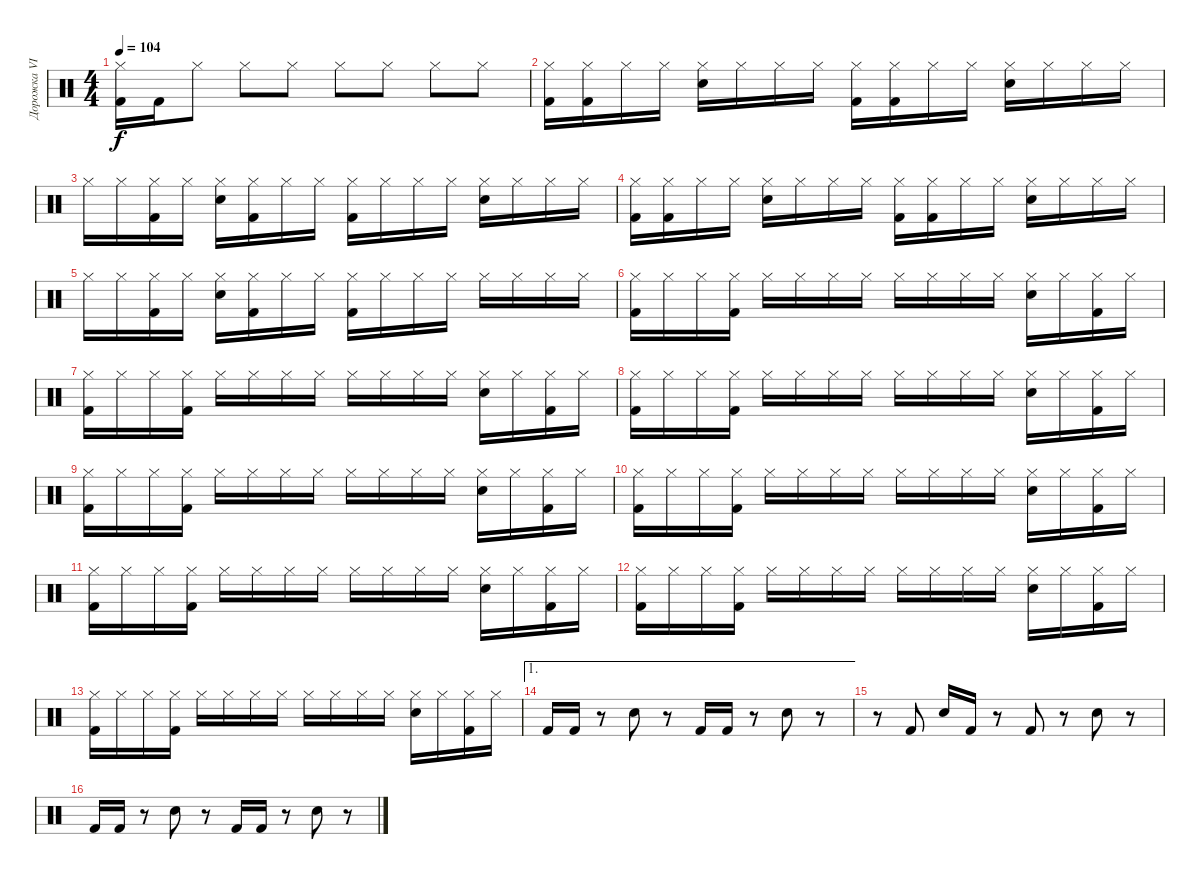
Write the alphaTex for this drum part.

\track ("Дорожка VII" "Дорожка VI") {instrument percussion}
\staff {score}
\articulation defaults
\ts (4 4)
\tempo 104
\clef neutral
\ks c
("Kick (hit) 2" "Hi-Hat (closed)").16{dy f} "Kick (hit) 2".16 "Hi-Hat (closed)".8 "Hi-Hat (closed)".8 "Hi-Hat (closed)".8 "Hi-Hat (closed)".8 "Hi-Hat (closed)".8 "Hi-Hat (closed)".8 "Hi-Hat (closed)".8 |
("Kick (hit) 2" "Hi-Hat (closed)").16 ("Kick (hit) 2" "Hi-Hat (closed)").16 "Hi-Hat (closed)".16 "Hi-Hat (closed)".16 ("Electric Snare (hit)" "Hi-Hat (closed)").16 "Hi-Hat (closed)".16 "Hi-Hat (closed)".16 "Hi-Hat (closed)".16 ("Kick (hit) 2" "Hi-Hat (closed)").16 ("Kick (hit) 2" "Hi-Hat (closed)").16 "Hi-Hat (closed)".16 "Hi-Hat (closed)".16 ("Electric Snare (hit)" "Hi-Hat (closed)").16 "Hi-Hat (closed)".16 "Hi-Hat (closed)".16 "Hi-Hat (closed)".16 |
"Hi-Hat (closed)".16 "Hi-Hat (closed)".16 ("Kick (hit) 2" "Hi-Hat (closed)").16 "Hi-Hat (closed)".16 ("Electric Snare (hit)" "Hi-Hat (closed)").16 ("Kick (hit) 2" "Hi-Hat (closed)").16 "Hi-Hat (closed)".16 "Hi-Hat (closed)".16 ("Kick (hit) 2" "Hi-Hat (closed)").16 "Hi-Hat (closed)".16 "Hi-Hat (closed)".16 "Hi-Hat (closed)".16 ("Electric Snare (hit)" "Hi-Hat (closed)").16 "Hi-Hat (closed)".16 "Hi-Hat (closed)".16 "Hi-Hat (closed)".16 |
("Kick (hit) 2" "Hi-Hat (closed)").16 ("Kick (hit) 2" "Hi-Hat (closed)").16 "Hi-Hat (closed)".16 "Hi-Hat (closed)".16 ("Electric Snare (hit)" "Hi-Hat (closed)").16 "Hi-Hat (closed)".16 "Hi-Hat (closed)".16 "Hi-Hat (closed)".16 ("Kick (hit) 2" "Hi-Hat (closed)").16 ("Kick (hit) 2" "Hi-Hat (closed)").16 "Hi-Hat (closed)".16 "Hi-Hat (closed)".16 ("Electric Snare (hit)" "Hi-Hat (closed)").16 "Hi-Hat (closed)".16 "Hi-Hat (closed)".16 "Hi-Hat (closed)".16 |
"Hi-Hat (closed)".16 "Hi-Hat (closed)".16 ("Kick (hit) 2" "Hi-Hat (closed)").16 "Hi-Hat (closed)".16 ("Electric Snare (hit)" "Hi-Hat (closed)").16 ("Kick (hit) 2" "Hi-Hat (closed)").16 "Hi-Hat (closed)".16 "Hi-Hat (closed)".16 ("Kick (hit) 2" "Hi-Hat (closed)").16 "Hi-Hat (closed)".16 "Hi-Hat (closed)".16 "Hi-Hat (closed)".16 "Hi-Hat (closed)".16 "Hi-Hat (closed)".16 "Hi-Hat (closed)".16 "Hi-Hat (closed)".16 |
("Kick (hit) 2" "Hi-Hat (closed)").16 "Hi-Hat (closed)".16 "Hi-Hat (closed)".16 ("Kick (hit) 2" "Hi-Hat (closed)").16 "Hi-Hat (closed)".16 "Hi-Hat (closed)".16 "Hi-Hat (closed)".16 "Hi-Hat (closed)".16 "Hi-Hat (closed)".16 "Hi-Hat (closed)".16 "Hi-Hat (closed)".16 "Hi-Hat (closed)".16 ("Electric Snare (hit)" "Hi-Hat (closed)").16 "Hi-Hat (closed)".16 ("Kick (hit) 2" "Hi-Hat (closed)").16 "Hi-Hat (closed)".16 |
("Kick (hit) 2" "Hi-Hat (closed)").16 "Hi-Hat (closed)".16 "Hi-Hat (closed)".16 ("Kick (hit) 2" "Hi-Hat (closed)").16 "Hi-Hat (closed)".16 "Hi-Hat (closed)".16 "Hi-Hat (closed)".16 "Hi-Hat (closed)".16 "Hi-Hat (closed)".16 "Hi-Hat (closed)".16 "Hi-Hat (closed)".16 "Hi-Hat (closed)".16 ("Electric Snare (hit)" "Hi-Hat (closed)").16 "Hi-Hat (closed)".16 ("Kick (hit) 2" "Hi-Hat (closed)").16 "Hi-Hat (closed)".16 |
("Kick (hit) 2" "Hi-Hat (closed)").16 "Hi-Hat (closed)".16 "Hi-Hat (closed)".16 ("Kick (hit) 2" "Hi-Hat (closed)").16 "Hi-Hat (closed)".16 "Hi-Hat (closed)".16 "Hi-Hat (closed)".16 "Hi-Hat (closed)".16 "Hi-Hat (closed)".16 "Hi-Hat (closed)".16 "Hi-Hat (closed)".16 "Hi-Hat (closed)".16 ("Electric Snare (hit)" "Hi-Hat (closed)").16 "Hi-Hat (closed)".16 ("Kick (hit) 2" "Hi-Hat (closed)").16 "Hi-Hat (closed)".16 |
("Kick (hit) 2" "Hi-Hat (closed)").16 "Hi-Hat (closed)".16 "Hi-Hat (closed)".16 ("Kick (hit) 2" "Hi-Hat (closed)").16 "Hi-Hat (closed)".16 "Hi-Hat (closed)".16 "Hi-Hat (closed)".16 "Hi-Hat (closed)".16 "Hi-Hat (closed)".16 "Hi-Hat (closed)".16 "Hi-Hat (closed)".16 "Hi-Hat (closed)".16 ("Electric Snare (hit)" "Hi-Hat (closed)").16 "Hi-Hat (closed)".16 ("Kick (hit) 2" "Hi-Hat (closed)").16 "Hi-Hat (closed)".16 |
("Kick (hit) 2" "Hi-Hat (closed)").16 "Hi-Hat (closed)".16 "Hi-Hat (closed)".16 ("Kick (hit) 2" "Hi-Hat (closed)").16 "Hi-Hat (closed)".16 "Hi-Hat (closed)".16 "Hi-Hat (closed)".16 "Hi-Hat (closed)".16 "Hi-Hat (closed)".16 "Hi-Hat (closed)".16 "Hi-Hat (closed)".16 "Hi-Hat (closed)".16 ("Electric Snare (hit)" "Hi-Hat (closed)").16 "Hi-Hat (closed)".16 ("Kick (hit) 2" "Hi-Hat (closed)").16 "Hi-Hat (closed)".16 |
("Kick (hit) 2" "Hi-Hat (closed)").16 "Hi-Hat (closed)".16 "Hi-Hat (closed)".16 ("Kick (hit) 2" "Hi-Hat (closed)").16 "Hi-Hat (closed)".16 "Hi-Hat (closed)".16 "Hi-Hat (closed)".16 "Hi-Hat (closed)".16 "Hi-Hat (closed)".16 "Hi-Hat (closed)".16 "Hi-Hat (closed)".16 "Hi-Hat (closed)".16 ("Electric Snare (hit)" "Hi-Hat (closed)").16 "Hi-Hat (closed)".16 ("Kick (hit) 2" "Hi-Hat (closed)").16 "Hi-Hat (closed)".16 |
("Kick (hit) 2" "Hi-Hat (closed)").16 "Hi-Hat (closed)".16 "Hi-Hat (closed)".16 ("Kick (hit) 2" "Hi-Hat (closed)").16 "Hi-Hat (closed)".16 "Hi-Hat (closed)".16 "Hi-Hat (closed)".16 "Hi-Hat (closed)".16 "Hi-Hat (closed)".16 "Hi-Hat (closed)".16 "Hi-Hat (closed)".16 "Hi-Hat (closed)".16 ("Electric Snare (hit)" "Hi-Hat (closed)").16 "Hi-Hat (closed)".16 ("Kick (hit) 2" "Hi-Hat (closed)").16 "Hi-Hat (closed)".16 |
("Kick (hit) 2" "Hi-Hat (closed)").16 "Hi-Hat (closed)".16 "Hi-Hat (closed)".16 ("Kick (hit) 2" "Hi-Hat (closed)").16 "Hi-Hat (closed)".16 "Hi-Hat (closed)".16 "Hi-Hat (closed)".16 "Hi-Hat (closed)".16 "Hi-Hat (closed)".16 "Hi-Hat (closed)".16 "Hi-Hat (closed)".16 "Hi-Hat (closed)".16 ("Electric Snare (hit)" "Hi-Hat (closed)").16 "Hi-Hat (closed)".16 ("Kick (hit) 2" "Hi-Hat (closed)").16 "Hi-Hat (closed)".16 |
\ae 1 "Kick (hit) 2".16 "Kick (hit) 2".16
r.8 "Electric Snare (hit)".8 r.8 "Kick (hit) 2".16 "Kick (hit) 2".16 r.8 "Electric Snare (hit)".8 r.8 |
r.8 "Kick (hit) 2".8 "Electric Snare (hit)".16 "Kick (hit) 2".16 r.8 "Kick (hit) 2".8 r.8 "Electric Snare (hit)".8 r.8 |
"Kick (hit) 2".16 "Kick (hit) 2".16 r.8 "Electric Snare (hit)".8 r.8 "Kick (hit) 2".16 "Kick (hit) 2".16 r.8 "Electric Snare (hit)".8 r.8
